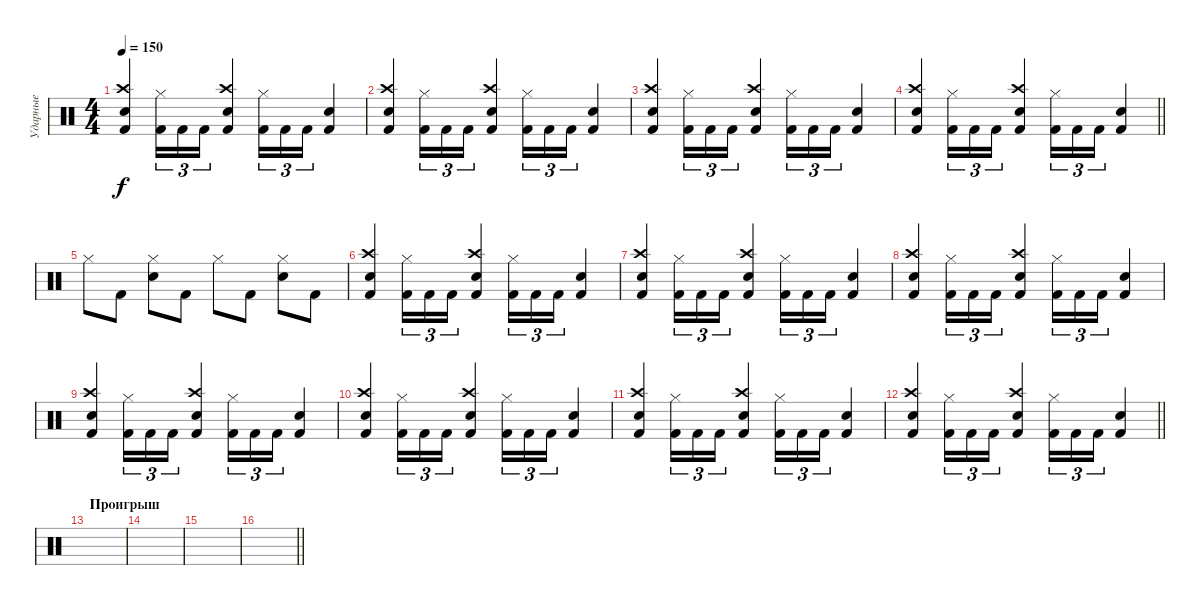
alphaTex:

\track ("Ударные" "Ударные") {instrument percussion}
\staff {score}
\articulation defaults
\ts (4 4)
\tempo 150
\clef neutral
\ks c
("Kick (hit) 2" "Crash high (hit)" "Snare (hit) 2").4{dy f} ("Hi-Hat (closed)" "Kick (hit) 2").16{tu (3 2)} "Kick (hit) 2".16{tu (3 2)} "Kick (hit) 2".16{tu (3 2)} ("Crash high (hit)" "Snare (hit) 2" "Kick (hit) 2").4 ("Hi-Hat (closed)" "Kick (hit) 2").16{tu (3 2)} "Kick (hit) 2".16{tu (3 2)} "Kick (hit) 2".16{tu (3 2)} ("Snare (hit) 2" "Kick (hit) 2").4 |
("Kick (hit) 2" "Crash high (hit)" "Snare (hit) 2").4 ("Hi-Hat (closed)" "Kick (hit) 2").16{tu (3 2)} "Kick (hit) 2".16{tu (3 2)} "Kick (hit) 2".16{tu (3 2)} ("Crash high (hit)" "Snare (hit) 2" "Kick (hit) 2").4 ("Hi-Hat (closed)" "Kick (hit) 2").16{tu (3 2)} "Kick (hit) 2".16{tu (3 2)} "Kick (hit) 2".16{tu (3 2)} ("Snare (hit) 2" "Kick (hit) 2").4 |
("Kick (hit) 2" "Crash high (hit)" "Snare (hit) 2").4 ("Hi-Hat (closed)" "Kick (hit) 2").16{tu (3 2)} "Kick (hit) 2".16{tu (3 2)} "Kick (hit) 2".16{tu (3 2)} ("Crash high (hit)" "Snare (hit) 2" "Kick (hit) 2").4 ("Hi-Hat (closed)" "Kick (hit) 2").16{tu (3 2)} "Kick (hit) 2".16{tu (3 2)} "Kick (hit) 2".16{tu (3 2)} ("Snare (hit) 2" "Kick (hit) 2").4 |
\barLineRight lightlight
("Kick (hit) 2" "Crash high (hit)" "Snare (hit) 2").4 ("Hi-Hat (closed)" "Kick (hit) 2").16{tu (3 2)} "Kick (hit) 2".16{tu (3 2)} "Kick (hit) 2".16{tu (3 2)} ("Crash high (hit)" "Snare (hit) 2" "Kick (hit) 2").4 ("Hi-Hat (closed)" "Kick (hit) 2").16{tu (3 2)} "Kick (hit) 2".16{tu (3 2)} "Kick (hit) 2".16{tu (3 2)} ("Snare (hit) 2" "Kick (hit) 2").4 |
\section ("" " ")
"Hi-Hat (closed)".8 "Kick (hit) 2".8 ("Hi-Hat (closed)" "Snare (hit) 2").8 "Kick (hit) 2".8 "Hi-Hat (closed)".8 "Kick (hit) 2".8 ("Hi-Hat (closed)" "Snare (hit) 2").8 "Kick (hit) 2".8 |
("Kick (hit) 2" "Crash high (hit)" "Snare (hit) 2").4 ("Hi-Hat (closed)" "Kick (hit) 2").16{tu (3 2)} "Kick (hit) 2".16{tu (3 2)} "Kick (hit) 2".16{tu (3 2)} ("Crash high (hit)" "Snare (hit) 2" "Kick (hit) 2").4 ("Hi-Hat (closed)" "Kick (hit) 2").16{tu (3 2)} "Kick (hit) 2".16{tu (3 2)} "Kick (hit) 2".16{tu (3 2)} ("Snare (hit) 2" "Kick (hit) 2").4 |
("Kick (hit) 2" "Crash high (hit)" "Snare (hit) 2").4 ("Hi-Hat (closed)" "Kick (hit) 2").16{tu (3 2)} "Kick (hit) 2".16{tu (3 2)} "Kick (hit) 2".16{tu (3 2)} ("Crash high (hit)" "Snare (hit) 2" "Kick (hit) 2").4 ("Hi-Hat (closed)" "Kick (hit) 2").16{tu (3 2)} "Kick (hit) 2".16{tu (3 2)} "Kick (hit) 2".16{tu (3 2)} ("Snare (hit) 2" "Kick (hit) 2").4 |
("Kick (hit) 2" "Crash high (hit)" "Snare (hit) 2").4 ("Hi-Hat (closed)" "Kick (hit) 2").16{tu (3 2)} "Kick (hit) 2".16{tu (3 2)} "Kick (hit) 2".16{tu (3 2)} ("Crash high (hit)" "Snare (hit) 2" "Kick (hit) 2").4 ("Hi-Hat (closed)" "Kick (hit) 2").16{tu (3 2)} "Kick (hit) 2".16{tu (3 2)} "Kick (hit) 2".16{tu (3 2)} ("Snare (hit) 2" "Kick (hit) 2").4 |
("Kick (hit) 2" "Crash high (hit)" "Snare (hit) 2").4 ("Hi-Hat (closed)" "Kick (hit) 2").16{tu (3 2)} "Kick (hit) 2".16{tu (3 2)} "Kick (hit) 2".16{tu (3 2)} ("Crash high (hit)" "Snare (hit) 2" "Kick (hit) 2").4 ("Hi-Hat (closed)" "Kick (hit) 2").16{tu (3 2)} "Kick (hit) 2".16{tu (3 2)} "Kick (hit) 2".16{tu (3 2)} ("Snare (hit) 2" "Kick (hit) 2").4 |
("Kick (hit) 2" "Crash high (hit)" "Snare (hit) 2").4 ("Hi-Hat (closed)" "Kick (hit) 2").16{tu (3 2)} "Kick (hit) 2".16{tu (3 2)} "Kick (hit) 2".16{tu (3 2)} ("Crash high (hit)" "Snare (hit) 2" "Kick (hit) 2").4 ("Hi-Hat (closed)" "Kick (hit) 2").16{tu (3 2)} "Kick (hit) 2".16{tu (3 2)} "Kick (hit) 2".16{tu (3 2)} ("Snare (hit) 2" "Kick (hit) 2").4 |
("Kick (hit) 2" "Crash high (hit)" "Snare (hit) 2").4 ("Hi-Hat (closed)" "Kick (hit) 2").16{tu (3 2)} "Kick (hit) 2".16{tu (3 2)} "Kick (hit) 2".16{tu (3 2)} ("Crash high (hit)" "Snare (hit) 2" "Kick (hit) 2").4 ("Hi-Hat (closed)" "Kick (hit) 2").16{tu (3 2)} "Kick (hit) 2".16{tu (3 2)} "Kick (hit) 2".16{tu (3 2)} ("Snare (hit) 2" "Kick (hit) 2").4 |
\barLineRight lightlight
("Kick (hit) 2" "Crash high (hit)" "Snare (hit) 2").4 ("Hi-Hat (closed)" "Kick (hit) 2").16{tu (3 2)} "Kick (hit) 2".16{tu (3 2)} "Kick (hit) 2".16{tu (3 2)} ("Crash high (hit)" "Snare (hit) 2" "Kick (hit) 2").4 ("Hi-Hat (closed)" "Kick (hit) 2").16{tu (3 2)} "Kick (hit) 2".16{tu (3 2)} "Kick (hit) 2".16{tu (3 2)} ("Snare (hit) 2" "Kick (hit) 2").4 |
\section ("" "Проигрыш")
|
|
|
\barLineRight lightlight
